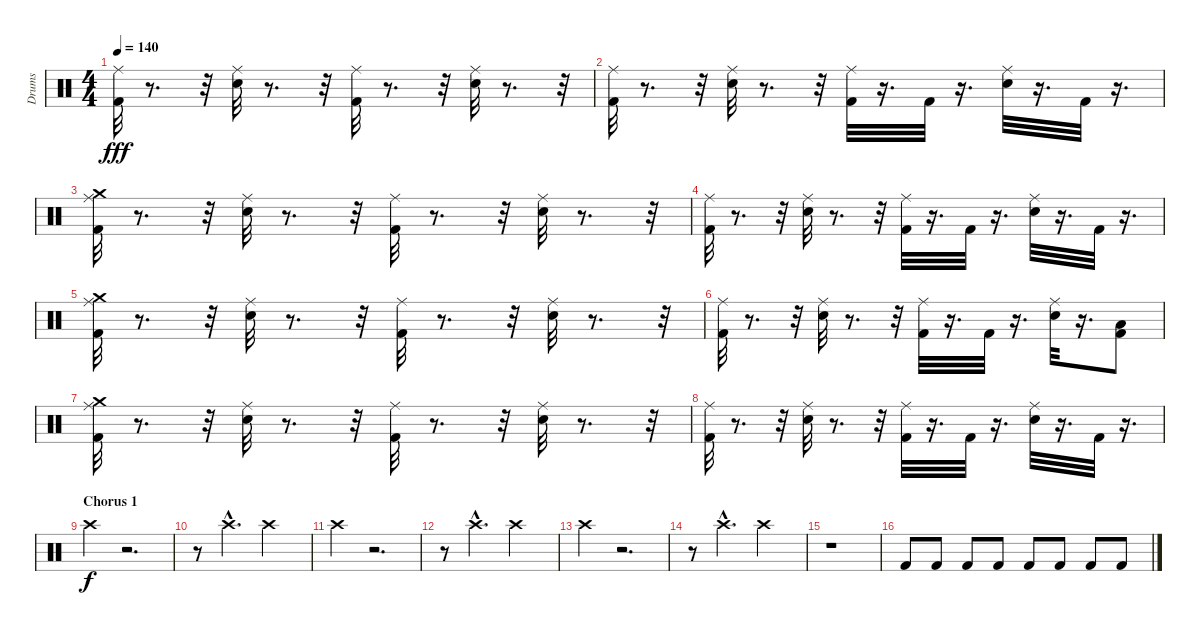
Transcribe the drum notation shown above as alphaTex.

\track ("Drums" "Drums") {instrument percussion}
\staff {score}
\articulation defaults
\ts (4 4)
\tempo 140
\clef neutral
\ks c
("Kick (hit) 2" "Ride (middle)").32{dy fff} r.8{d} r.32 ("Ride (middle)" "Snare (hit) 2").32 r.8{d} r.32 ("Kick (hit) 2" "Ride (middle)").32 r.8{d} r.32 ("Ride (middle)" "Snare (hit) 2").32 r.8{d} r.32 |
("Kick (hit) 2" "Ride (middle)").32 r.8{d} r.32 ("Ride (middle)" "Snare (hit) 2").32 r.8{d} r.32 ("Kick (hit) 2" "Ride (middle)").32 r.16{d} "Kick (hit) 2".32 r.16{d} ("Ride (middle)" "Snare (hit) 2").32 r.16{d} "Kick (hit) 2".32 r.16{d} |
("Crash medium (hit)" "Kick (hit) 2" "Ride (middle)").32 r.8{d} r.32 ("Ride (middle)" "Snare (hit) 2").32 r.8{d} r.32 ("Kick (hit) 2" "Ride (middle)").32 r.8{d} r.32 ("Ride (middle)" "Snare (hit) 2").32 r.8{d} r.32 |
("Kick (hit) 2" "Ride (middle)").32 r.8{d} r.32 ("Ride (middle)" "Snare (hit) 2").32 r.8{d} r.32 ("Kick (hit) 2" "Ride (middle)").32 r.16{d} "Kick (hit) 2".32 r.16{d} ("Ride (middle)" "Snare (hit) 2").32 r.16{d} "Kick (hit) 2".32 r.16{d} |
("Crash medium (hit)" "Kick (hit) 2" "Ride (middle)").32 r.8{d} r.32 ("Ride (middle)" "Snare (hit) 2").32 r.8{d} r.32 ("Kick (hit) 2" "Ride (middle)").32 r.8{d} r.32 ("Ride (middle)" "Snare (hit) 2").32 r.8{d} r.32 |
("Kick (hit) 2" "Ride (middle)").32 r.8{d} r.32 ("Ride (middle)" "Snare (hit) 2").32 r.8{d} r.32 ("Kick (hit) 2" "Ride (middle)").32 r.16{d} "Kick (hit) 2".32 r.16{d} ("Ride (middle)" "Snare (hit) 2").32 r.16{d} ("Low Tom (hit)" "Kick (hit) 2").8 |
("Crash medium (hit)" "Kick (hit) 2" "Ride (middle)").32 r.8{d} r.32 ("Ride (middle)" "Snare (hit) 2").32 r.8{d} r.32 ("Kick (hit) 2" "Ride (middle)").32 r.8{d} r.32 ("Ride (middle)" "Snare (hit) 2").32 r.8{d} r.32 |
("Kick (hit) 2" "Ride (middle)").32 r.8{d} r.32 ("Ride (middle)" "Snare (hit) 2").32 r.8{d} r.32 ("Kick (hit) 2" "Ride (middle)").32 r.16{d} "Kick (hit) 2".32 r.16{d} ("Ride (middle)" "Snare (hit) 2").32 r.16{d} "Kick (hit) 2".32 r.16{d} |
\section ("" "Chorus 1")
"Crash high (hit)".4{dy f} r.2{d} |
r.8 "Crash high (hit)"{hac}.4{d} "Crash high (hit)".2 |
"Crash high (hit)".4 r.2{d} |
r.8 "Crash high (hit)"{hac}.4{d} "Crash high (hit)".2 |
"Crash high (hit)".4 r.2{d} |
r.8 "Crash high (hit)"{hac}.4{d} "Crash high (hit)".2 |
r.1 |
"Kick (hit) 2".8{volume 0} "Kick (hit) 2".8{volume 1} "Kick (hit) 2".8{volume 2} "Kick (hit) 2".8{volume 3} "Kick (hit) 2".8{volume 4} "Kick (hit) 2".8{volume 5} "Kick (hit) 2".8{volume 6} "Kick (hit) 2".8{volume 11}
